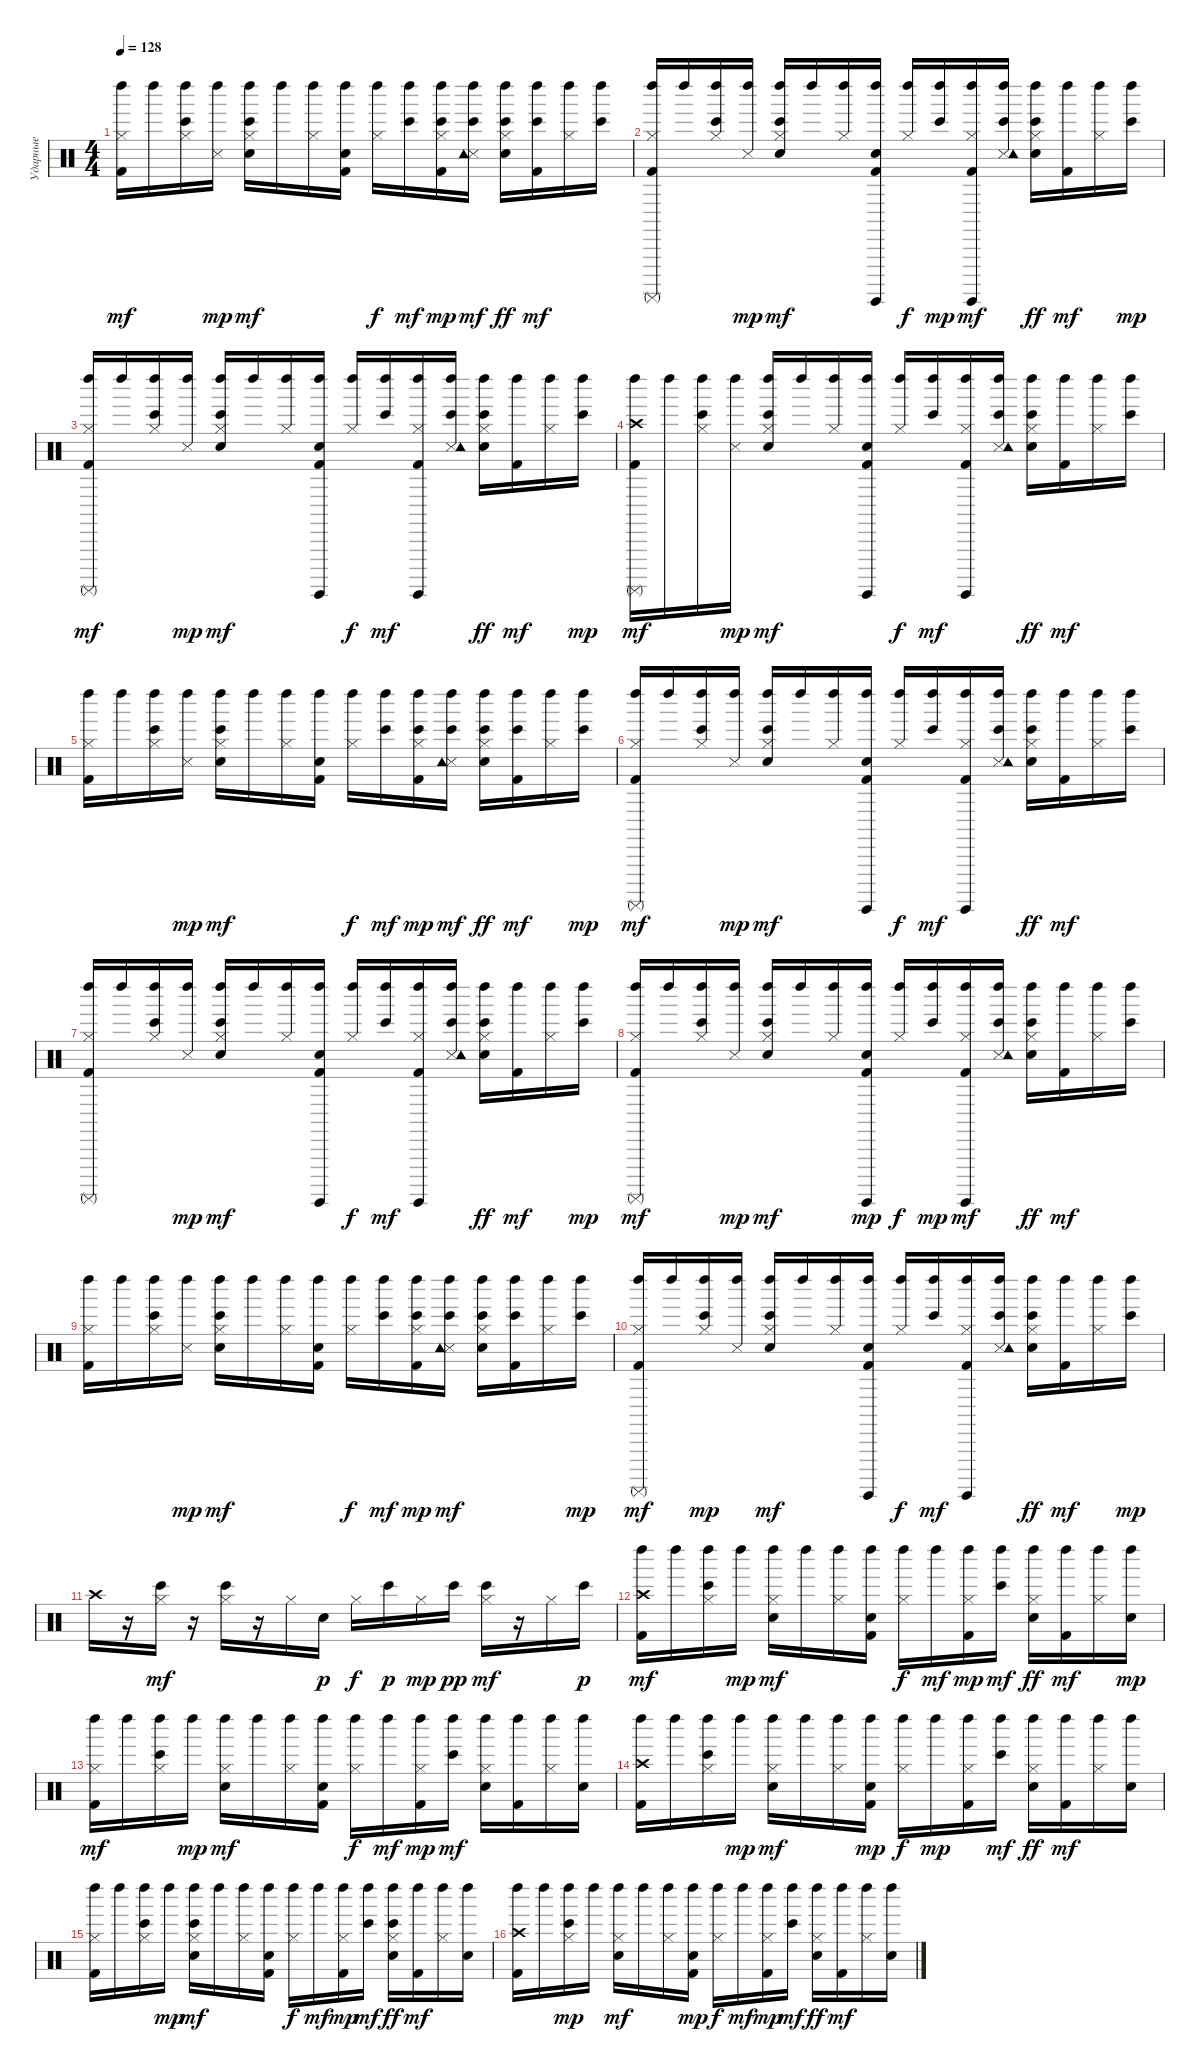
\track ("Ударные" "Ударные") {instrument percussion}
\staff {score}
\articulation defaults
\ts (4 4)
\tempo 128
\clef neutral
\ks c
("Kick (hit) 2" "Hi-Hat (closed)" "Left Maraca (hit)").16{dy mf} "Left Maraca (hit)".16 ("Bongo High (hit)" "Hi-Hat (closed)" "Left Maraca (hit)").16 ("Snare (side stick) 3" "Left Maraca (hit)").16{dy mp} ("Bongo High (hit)" "Electric Snare (hit)" "Hi-Hat (closed)" "Left Maraca (hit)").16{dy mf} "Left Maraca (hit)".16 ("Hi-Hat (closed)" "Left Maraca (hit)").16 ("Kick (hit) 2" "Electric Snare (hit)" "Left Maraca (hit)").16 ("Hi-Hat (closed)" "Left Maraca (hit)").16{dy f} ("Bongo High (hit)" "Left Maraca (hit)").16{dy mf} ("Bongo High (hit)" "Kick (hit) 2" "Hi-Hat (closed)" "Left Maraca (hit)").16{dy mp} ("Bongo High (hit)" "Snare (side stick) 3" "Tambourine (hit)" "Left Maraca (hit)").16{dy mf} ("Bongo High (hit)" "Electric Snare (hit)" "Hi-Hat (closed)" "Left Maraca (hit)").16{dy ff} ("Bongo High (hit)" "Kick (hit) 2" "Left Maraca (hit)").16{dy mf} ("Hi-Hat (closed)" "Left Maraca (hit)").16 ("Bongo High (hit)" "Left Maraca (hit)").16 |
("Kick (hit) 2" "Hi-Hat (closed)" "Left Maraca (hit)" "Surdo (mute)").16 "Left Maraca (hit)".16 ("Bongo High (hit)" "Hi-Hat (closed)" "Left Maraca (hit)").16 ("Snare (side stick) 3" "Left Maraca (hit)").16{dy mp} ("Bongo High (hit)" "Electric Snare (hit)" "Hi-Hat (closed)" "Left Maraca (hit)").16{dy mf} "Left Maraca (hit)".16 ("Hi-Hat (closed)" "Left Maraca (hit)").16 ("Kick (hit) 2" "Electric Snare (hit)" "Left Maraca (hit)" "Surdo (hit)").16 ("Hi-Hat (closed)" "Left Maraca (hit)").16{dy f} ("Bongo High (hit)" "Left Maraca (hit)").16{dy mp} ("Kick (hit) 2" "Hi-Hat (closed)" "Left Maraca (hit)" "Surdo (hit)").16{dy mf} ("Bongo High (hit)" "Snare (side stick) 3" "Tambourine (hit)" "Left Maraca (hit)").16 ("Bongo High (hit)" "Electric Snare (hit)" "Hi-Hat (closed)" "Left Maraca (hit)").16{dy ff} ("Kick (hit) 2" "Left Maraca (hit)").16{dy mf} ("Hi-Hat (closed)" "Left Maraca (hit)").16 ("Bongo High (hit)" "Left Maraca (hit)").16{dy mp} |
("Kick (hit) 2" "Hi-Hat (closed)" "Left Maraca (hit)" "Surdo (mute)").16{dy mf} "Left Maraca (hit)".16 ("Bongo High (hit)" "Hi-Hat (closed)" "Left Maraca (hit)").16 ("Snare (side stick) 3" "Left Maraca (hit)").16{dy mp} ("Bongo High (hit)" "Electric Snare (hit)" "Hi-Hat (closed)" "Left Maraca (hit)").16{dy mf} "Left Maraca (hit)".16 ("Hi-Hat (closed)" "Left Maraca (hit)").16 ("Kick (hit) 2" "Electric Snare (hit)" "Left Maraca (hit)" "Surdo (hit)").16 ("Hi-Hat (closed)" "Left Maraca (hit)").16{dy f} ("Bongo High (hit)" "Left Maraca (hit)").16{dy mf} ("Kick (hit) 2" "Hi-Hat (closed)" "Left Maraca (hit)" "Surdo (hit)").16 ("Bongo High (hit)" "Snare (side stick) 3" "Tambourine (hit)" "Left Maraca (hit)").16 ("Bongo High (hit)" "Electric Snare (hit)" "Hi-Hat (closed)" "Left Maraca (hit)").16{dy ff} ("Kick (hit) 2" "Left Maraca (hit)").16{dy mf} ("Hi-Hat (closed)" "Left Maraca (hit)").16 ("Bongo High (hit)" "Left Maraca (hit)").16{dy mp} |
("Kick (hit) 2" "Crash high (hit)" "Left Maraca (hit)" "Surdo (mute)").16{dy mf} "Left Maraca (hit)".16 ("Bongo High (hit)" "Hi-Hat (closed)" "Left Maraca (hit)").16 ("Snare (side stick) 3" "Left Maraca (hit)").16{dy mp} ("Bongo High (hit)" "Electric Snare (hit)" "Hi-Hat (closed)" "Left Maraca (hit)").16{dy mf} "Left Maraca (hit)".16 ("Hi-Hat (closed)" "Left Maraca (hit)").16 ("Kick (hit) 2" "Electric Snare (hit)" "Left Maraca (hit)" "Surdo (hit)").16 ("Hi-Hat (closed)" "Left Maraca (hit)").16{dy f} ("Bongo High (hit)" "Left Maraca (hit)").16{dy mf} ("Kick (hit) 2" "Hi-Hat (closed)" "Left Maraca (hit)" "Surdo (hit)").16 ("Bongo High (hit)" "Snare (side stick) 3" "Tambourine (hit)" "Left Maraca (hit)").16 ("Bongo High (hit)" "Electric Snare (hit)" "Hi-Hat (closed)" "Left Maraca (hit)").16{dy ff} ("Kick (hit) 2" "Left Maraca (hit)").16{dy mf} ("Hi-Hat (closed)" "Left Maraca (hit)").16 ("Bongo High (hit)" "Left Maraca (hit)").16 |
("Kick (hit) 2" "Hi-Hat (closed)" "Left Maraca (hit)").16 "Left Maraca (hit)".16 ("Bongo High (hit)" "Hi-Hat (closed)" "Left Maraca (hit)").16 ("Snare (side stick) 3" "Left Maraca (hit)").16{dy mp} ("Bongo High (hit)" "Electric Snare (hit)" "Hi-Hat (closed)" "Left Maraca (hit)").16{dy mf} "Left Maraca (hit)".16 ("Hi-Hat (closed)" "Left Maraca (hit)").16 ("Kick (hit) 2" "Electric Snare (hit)" "Left Maraca (hit)").16 ("Hi-Hat (closed)" "Left Maraca (hit)").16{dy f} ("Bongo High (hit)" "Left Maraca (hit)").16{dy mf} ("Bongo High (hit)" "Kick (hit) 2" "Hi-Hat (closed)" "Left Maraca (hit)").16{dy mp} ("Bongo High (hit)" "Snare (side stick) 3" "Tambourine (hit)" "Left Maraca (hit)").16{dy mf} ("Bongo High (hit)" "Electric Snare (hit)" "Hi-Hat (closed)" "Left Maraca (hit)").16{dy ff} ("Bongo High (hit)" "Kick (hit) 2" "Left Maraca (hit)").16{dy mf} ("Hi-Hat (closed)" "Left Maraca (hit)").16 ("Bongo High (hit)" "Left Maraca (hit)").16{dy mp} |
("Kick (hit) 2" "Hi-Hat (closed)" "Left Maraca (hit)" "Surdo (mute)").16{dy mf} "Left Maraca (hit)".16 ("Bongo High (hit)" "Hi-Hat (closed)" "Left Maraca (hit)").16 ("Snare (side stick) 3" "Left Maraca (hit)").16{dy mp} ("Bongo High (hit)" "Electric Snare (hit)" "Hi-Hat (closed)" "Left Maraca (hit)").16{dy mf} "Left Maraca (hit)".16 ("Hi-Hat (closed)" "Left Maraca (hit)").16 ("Kick (hit) 2" "Electric Snare (hit)" "Left Maraca (hit)" "Surdo (hit)").16 ("Hi-Hat (closed)" "Left Maraca (hit)").16{dy f} ("Bongo High (hit)" "Left Maraca (hit)").16{dy mf} ("Kick (hit) 2" "Hi-Hat (closed)" "Left Maraca (hit)" "Surdo (hit)").16 ("Bongo High (hit)" "Snare (side stick) 3" "Tambourine (hit)" "Left Maraca (hit)").16 ("Bongo High (hit)" "Electric Snare (hit)" "Hi-Hat (closed)" "Left Maraca (hit)").16{dy ff} ("Kick (hit) 2" "Left Maraca (hit)").16{dy mf} ("Hi-Hat (closed)" "Left Maraca (hit)").16 ("Bongo High (hit)" "Left Maraca (hit)").16 |
("Kick (hit) 2" "Hi-Hat (closed)" "Left Maraca (hit)" "Surdo (mute)").16 "Left Maraca (hit)".16 ("Bongo High (hit)" "Hi-Hat (closed)" "Left Maraca (hit)").16 ("Snare (side stick) 3" "Left Maraca (hit)").16{dy mp} ("Bongo High (hit)" "Electric Snare (hit)" "Hi-Hat (closed)" "Left Maraca (hit)").16{dy mf} "Left Maraca (hit)".16 ("Hi-Hat (closed)" "Left Maraca (hit)").16 ("Kick (hit) 2" "Electric Snare (hit)" "Left Maraca (hit)" "Surdo (hit)").16 ("Hi-Hat (closed)" "Left Maraca (hit)").16{dy f} ("Bongo High (hit)" "Left Maraca (hit)").16{dy mf} ("Kick (hit) 2" "Hi-Hat (closed)" "Left Maraca (hit)" "Surdo (hit)").16 ("Bongo High (hit)" "Snare (side stick) 3" "Tambourine (hit)" "Left Maraca (hit)").16 ("Bongo High (hit)" "Electric Snare (hit)" "Hi-Hat (closed)" "Left Maraca (hit)").16{dy ff} ("Kick (hit) 2" "Left Maraca (hit)").16{dy mf} ("Hi-Hat (closed)" "Left Maraca (hit)").16 ("Bongo High (hit)" "Left Maraca (hit)").16{dy mp} |
("Kick (hit) 2" "Hi-Hat (closed)" "Left Maraca (hit)" "Surdo (mute)").16{dy mf} "Left Maraca (hit)".16 ("Bongo High (hit)" "Hi-Hat (closed)" "Left Maraca (hit)").16 ("Snare (side stick) 3" "Left Maraca (hit)").16{dy mp} ("Bongo High (hit)" "Electric Snare (hit)" "Hi-Hat (closed)" "Left Maraca (hit)").16{dy mf} "Left Maraca (hit)".16 ("Hi-Hat (closed)" "Left Maraca (hit)").16 ("Kick (hit) 2" "Electric Snare (hit)" "Left Maraca (hit)" "Surdo (hit)").16{dy mp} ("Hi-Hat (closed)" "Left Maraca (hit)").16{dy f} ("Bongo High (hit)" "Left Maraca (hit)").16{dy mp} ("Kick (hit) 2" "Hi-Hat (closed)" "Left Maraca (hit)" "Surdo (hit)").16{dy mf} ("Bongo High (hit)" "Snare (side stick) 3" "Tambourine (hit)" "Left Maraca (hit)").16 ("Bongo High (hit)" "Electric Snare (hit)" "Hi-Hat (closed)" "Left Maraca (hit)").16{dy ff} ("Kick (hit) 2" "Left Maraca (hit)").16{dy mf} ("Hi-Hat (closed)" "Left Maraca (hit)").16 ("Bongo High (hit)" "Left Maraca (hit)").16 |
("Kick (hit) 2" "Hi-Hat (closed)" "Left Maraca (hit)").16 "Left Maraca (hit)".16 ("Bongo High (hit)" "Hi-Hat (closed)" "Left Maraca (hit)").16 ("Snare (side stick) 3" "Left Maraca (hit)").16{dy mp} ("Bongo High (hit)" "Electric Snare (hit)" "Hi-Hat (closed)" "Left Maraca (hit)").16{dy mf} "Left Maraca (hit)".16 ("Hi-Hat (closed)" "Left Maraca (hit)").16 ("Kick (hit) 2" "Electric Snare (hit)" "Left Maraca (hit)").16 ("Hi-Hat (closed)" "Left Maraca (hit)").16{dy f} ("Bongo High (hit)" "Left Maraca (hit)").16{dy mf} ("Bongo High (hit)" "Kick (hit) 2" "Hi-Hat (closed)" "Left Maraca (hit)").16{dy mp} ("Bongo High (hit)" "Snare (side stick) 3" "Tambourine (hit)" "Left Maraca (hit)").16{dy mf} ("Bongo High (hit)" "Electric Snare (hit)" "Hi-Hat (closed)" "Left Maraca (hit)").16 ("Bongo High (hit)" "Kick (hit) 2" "Left Maraca (hit)").16 ("Hi-Hat (closed)" "Left Maraca (hit)").16 ("Bongo High (hit)" "Left Maraca (hit)").16{dy mp} |
("Kick (hit) 2" "Hi-Hat (closed)" "Left Maraca (hit)" "Surdo (mute)").16{dy mf} "Left Maraca (hit)".16 ("Bongo High (hit)" "Hi-Hat (closed)" "Left Maraca (hit)").16{dy mp} ("Snare (side stick) 3" "Left Maraca (hit)").16 ("Bongo High (hit)" "Electric Snare (hit)" "Hi-Hat (closed)" "Left Maraca (hit)").16{dy mf} "Left Maraca (hit)".16 ("Hi-Hat (closed)" "Left Maraca (hit)").16 ("Kick (hit) 2" "Electric Snare (hit)" "Left Maraca (hit)" "Surdo (hit)").16 ("Hi-Hat (closed)" "Left Maraca (hit)").16{dy f} ("Bongo High (hit)" "Left Maraca (hit)").16{dy mf} ("Kick (hit) 2" "Hi-Hat (closed)" "Left Maraca (hit)" "Surdo (hit)").16 ("Bongo High (hit)" "Snare (side stick) 3" "Tambourine (hit)" "Left Maraca (hit)").16 ("Bongo High (hit)" "Electric Snare (hit)" "Hi-Hat (closed)" "Left Maraca (hit)").16{dy ff} ("Kick (hit) 2" "Left Maraca (hit)").16{dy mf} ("Hi-Hat (closed)" "Left Maraca (hit)").16 ("Bongo High (hit)" "Left Maraca (hit)").16{dy mp} |
"Crash high (hit)".16 r.16 ("Bongo High (hit)" "Hi-Hat (closed)").16{dy mf} r.16 ("Bongo High (hit)" "Hi-Hat (closed)").16 r.16 "Hi-Hat (closed)".16 "Electric Snare (hit)".16{dy p} "Hi-Hat (closed)".16{dy f} "Bongo High (hit)".16{dy p} "Hi-Hat (closed)".16{dy mp} "Bongo High (hit)".16{dy pp} ("Bongo High (hit)" "Hi-Hat (closed)").16{dy mf} r.16 "Hi-Hat (closed)".16 "Bongo High (hit)".16{dy p} |
("Kick (hit) 2" "Crash high (hit)" "Left Maraca (hit)").16{dy mf} "Left Maraca (hit)".16 ("Bongo High (hit)" "Hi-Hat (closed)" "Left Maraca (hit)").16 "Left Maraca (hit)".16{dy mp} ("Electric Snare (hit)" "Hi-Hat (closed)" "Left Maraca (hit)").16{dy mf} "Left Maraca (hit)".16 ("Hi-Hat (closed)" "Left Maraca (hit)").16 ("Kick (hit) 2" "Electric Snare (hit)" "Left Maraca (hit)").16 ("Hi-Hat (closed)" "Left Maraca (hit)").16{dy f} "Left Maraca (hit)".16{dy mf} ("Kick (hit) 2" "Hi-Hat (closed)" "Left Maraca (hit)").16{dy mp} ("Bongo High (hit)" "Left Maraca (hit)").16{dy mf} ("Electric Snare (hit)" "Hi-Hat (closed)" "Left Maraca (hit)").16{dy ff} ("Kick (hit) 2" "Left Maraca (hit)").16{dy mf} ("Hi-Hat (closed)" "Left Maraca (hit)").16 ("Electric Snare (hit)" "Left Maraca (hit)").16{dy mp} |
("Kick (hit) 2" "Hi-Hat (closed)" "Left Maraca (hit)").16{dy mf} "Left Maraca (hit)".16 ("Bongo High (hit)" "Hi-Hat (closed)" "Left Maraca (hit)").16 "Left Maraca (hit)".16{dy mp} ("Electric Snare (hit)" "Hi-Hat (closed)" "Left Maraca (hit)").16{dy mf} "Left Maraca (hit)".16 ("Hi-Hat (closed)" "Left Maraca (hit)").16 ("Kick (hit) 2" "Electric Snare (hit)" "Left Maraca (hit)").16 ("Hi-Hat (closed)" "Left Maraca (hit)").16{dy f} "Left Maraca (hit)".16{dy mf} ("Kick (hit) 2" "Hi-Hat (closed)" "Left Maraca (hit)").16{dy mp} ("Bongo High (hit)" "Left Maraca (hit)").16{dy mf} ("Electric Snare (hit)" "Hi-Hat (closed)" "Left Maraca (hit)").16 ("Kick (hit) 2" "Left Maraca (hit)").16 ("Hi-Hat (closed)" "Left Maraca (hit)").16 ("Electric Snare (hit)" "Left Maraca (hit)").16 |
("Kick (hit) 2" "Crash high (hit)" "Left Maraca (hit)").16 "Left Maraca (hit)".16 ("Bongo High (hit)" "Hi-Hat (closed)" "Left Maraca (hit)").16 "Left Maraca (hit)".16{dy mp} ("Electric Snare (hit)" "Hi-Hat (closed)" "Left Maraca (hit)").16{dy mf} "Left Maraca (hit)".16 ("Hi-Hat (closed)" "Left Maraca (hit)").16 ("Kick (hit) 2" "Electric Snare (hit)" "Left Maraca (hit)").16{dy mp} ("Hi-Hat (closed)" "Left Maraca (hit)").16{dy f} "Left Maraca (hit)".16{dy mp} ("Kick (hit) 2" "Hi-Hat (closed)" "Left Maraca (hit)").16 ("Bongo High (hit)" "Left Maraca (hit)").16{dy mf} ("Electric Snare (hit)" "Hi-Hat (closed)" "Left Maraca (hit)").16{dy ff} ("Kick (hit) 2" "Left Maraca (hit)").16{dy mf} ("Hi-Hat (closed)" "Left Maraca (hit)").16 ("Electric Snare (hit)" "Left Maraca (hit)").16 |
("Kick (hit) 2" "Hi-Hat (closed)" "Left Maraca (hit)").16 "Left Maraca (hit)".16 ("Bongo High (hit)" "Hi-Hat (closed)" "Left Maraca (hit)").16 "Left Maraca (hit)".16{dy mp} ("Bongo High (hit)" "Electric Snare (hit)" "Hi-Hat (closed)" "Left Maraca (hit)").16{dy mf} "Left Maraca (hit)".16 ("Hi-Hat (closed)" "Left Maraca (hit)").16 ("Kick (hit) 2" "Electric Snare (hit)" "Left Maraca (hit)").16 ("Hi-Hat (closed)" "Left Maraca (hit)").16{dy f} "Left Maraca (hit)".16{dy mf} ("Kick (hit) 2" "Hi-Hat (closed)" "Left Maraca (hit)").16{dy mp} ("Bongo High (hit)" "Left Maraca (hit)").16{dy mf} ("Bongo High (hit)" "Electric Snare (hit)" "Hi-Hat (closed)" "Left Maraca (hit)").16{dy ff} ("Kick (hit) 2" "Left Maraca (hit)").16{dy mf} ("Hi-Hat (closed)" "Left Maraca (hit)").16 ("Electric Snare (hit)" "Left Maraca (hit)").16 |
("Kick (hit) 2" "Crash high (hit)" "Left Maraca (hit)").16 "Left Maraca (hit)".16 ("Bongo High (hit)" "Hi-Hat (closed)" "Left Maraca (hit)").16{dy mp} "Left Maraca (hit)".16 ("Electric Snare (hit)" "Hi-Hat (closed)" "Left Maraca (hit)").16{dy mf} "Left Maraca (hit)".16 ("Hi-Hat (closed)" "Left Maraca (hit)").16 ("Kick (hit) 2" "Electric Snare (hit)" "Left Maraca (hit)").16{dy mp} ("Hi-Hat (closed)" "Left Maraca (hit)").16{dy f} "Left Maraca (hit)".16{dy mf} ("Kick (hit) 2" "Hi-Hat (closed)" "Left Maraca (hit)").16{dy mp} ("Bongo High (hit)" "Left Maraca (hit)").16{dy mf} ("Electric Snare (hit)" "Hi-Hat (closed)" "Left Maraca (hit)").16{dy ff} ("Kick (hit) 2" "Left Maraca (hit)").16{dy mf} ("Hi-Hat (closed)" "Left Maraca (hit)").16 ("Electric Snare (hit)" "Left Maraca (hit)").16
